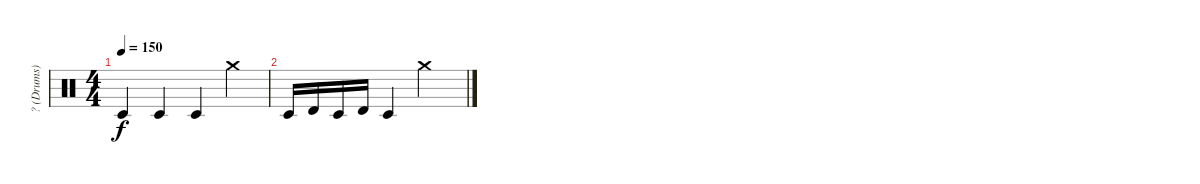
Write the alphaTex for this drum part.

\track ("? (Drums)" "? (Drums)") {instrument percussion}
\staff {score}
\articulation defaults
\ts (4 4)
\tempo 150
\clef neutral
\ks c "Timbale low (hit)".4{dy f} "Timbale low (hit)".4 "Timbale low (hit)".4 "Crash medium (hit)".4
|
"Timbale low (hit)".16 "Timbale high (hit)".16 "Timbale low (hit)".16 "Timbale high (hit)".16 "Timbale low (hit)".4 "Crash medium (hit)".2
